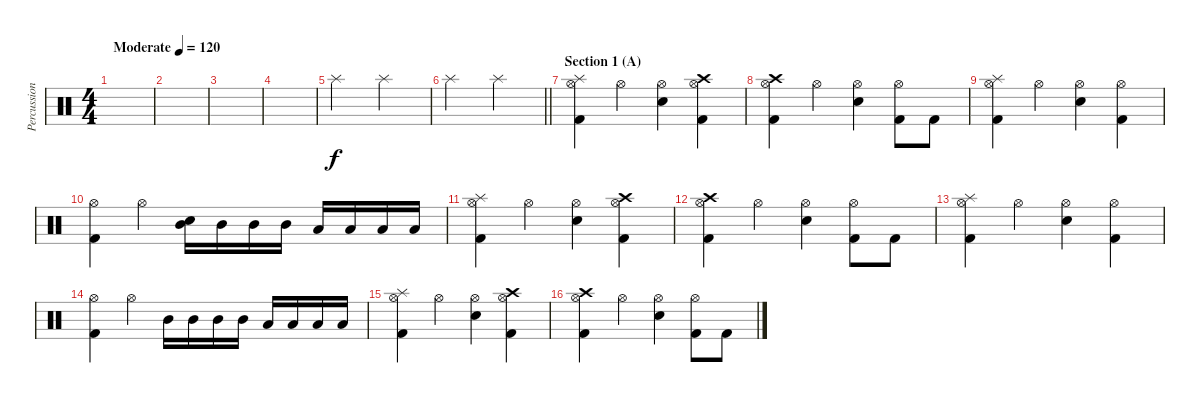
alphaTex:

\track ("Percussion" "Percussion") {instrument percussion}
\staff {score}
\articulation defaults
\ts (4 4)
\tempo (120 "Moderate")
\clef neutral
\ks c
|
|
|
|
"Splash (hit)".2 "Splash (hit)".2 |
\barLineRight lightlight "Splash (hit)".2 "Splash (hit)".2
|
\section ("" "Section 1 (A)")
("Splash (hit)" "Hi-Hat (open)" "Kick (hit) 2").4 "Hi-Hat (open)".4 ("Hi-Hat (open)" "Snare (hit) 2").4 ("Hi-Hat (open)" "Crash high (hit)" "Kick (hit) 2").4 |
("Hi-Hat (open)" "Crash high (hit)" "Kick (hit) 2").4 "Hi-Hat (open)".4 ("Hi-Hat (open)" "Snare (hit) 2").4 ("Hi-Hat (open)" "Kick (hit) 2").8 "Kick (hit) 2".8 |
("Splash (hit)" "Hi-Hat (open)" "Kick (hit) 2").4 "Hi-Hat (open)".4 ("Hi-Hat (open)" "Snare (hit) 2").4 ("Hi-Hat (open)" "Kick (hit) 2").4 |
("Hi-Hat (open)" "Kick (hit) 2").4 "Hi-Hat (open)".4 ("Mid Tom (hit)" "Snare (hit) 2").16 "Mid Tom (hit)".16 "Mid Tom (hit)".16 "Mid Tom (hit)".16 "Low Tom (hit)".16 "Low Tom (hit)".16 "Low Tom (hit)".16 "Low Tom (hit)".16 |
("Splash (hit)" "Hi-Hat (open)" "Kick (hit) 2").4 "Hi-Hat (open)".4 ("Hi-Hat (open)" "Snare (hit) 2").4 ("Hi-Hat (open)" "Crash high (hit)" "Kick (hit) 2").4 |
("Hi-Hat (open)" "Crash high (hit)" "Kick (hit) 2").4 "Hi-Hat (open)".4 ("Hi-Hat (open)" "Snare (hit) 2").4 ("Hi-Hat (open)" "Kick (hit) 2").8 "Kick (hit) 2".8 |
("Splash (hit)" "Hi-Hat (open)" "Kick (hit) 2").4 "Hi-Hat (open)".4 ("Hi-Hat (open)" "Snare (hit) 2").4 ("Hi-Hat (open)" "Kick (hit) 2").4 |
("Hi-Hat (open)" "Kick (hit) 2").4 "Hi-Hat (open)".4 "Mid Tom (hit)".16 "Mid Tom (hit)".16 "Mid Tom (hit)".16 "Mid Tom (hit)".16 "Low Tom (hit)".16 "Low Tom (hit)".16 "Low Tom (hit)".16 "Low Tom (hit)".16 |
("Splash (hit)" "Hi-Hat (open)" "Kick (hit) 2").4 "Hi-Hat (open)".4 ("Hi-Hat (open)" "Snare (hit) 2").4 ("Hi-Hat (open)" "Crash high (hit)" "Kick (hit) 2").4 |
("Hi-Hat (open)" "Crash high (hit)" "Kick (hit) 2").4 "Hi-Hat (open)".4 ("Hi-Hat (open)" "Snare (hit) 2").4 ("Hi-Hat (open)" "Kick (hit) 2").8 "Kick (hit) 2".8
